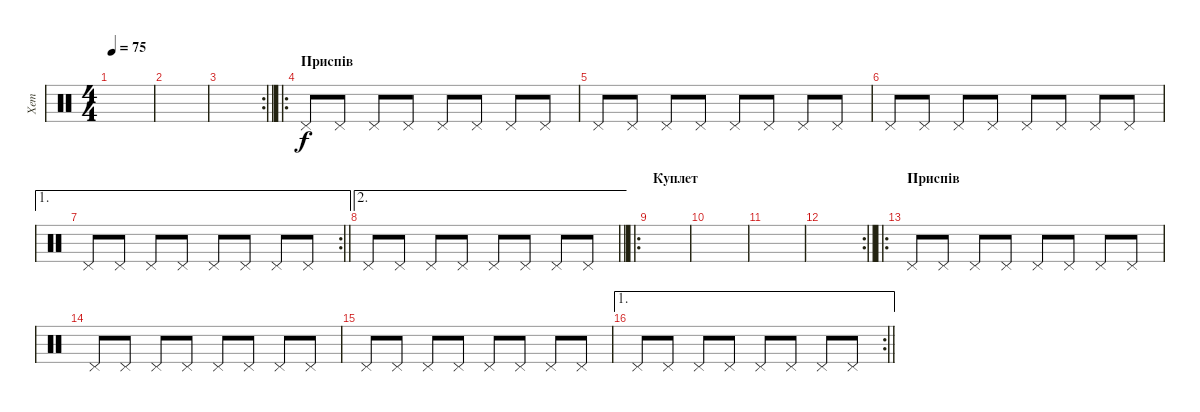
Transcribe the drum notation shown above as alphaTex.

\track ("Хет" "Хет") {instrument percussion}
\staff {score}
\articulation defaults
\ts (4 4)
\tempo 75
\clef neutral
\ks c
|
|
\rc 2
\barLineRight lightlight
|
\ro
\section ("" "Приспів")
"Pedal Hi-Hat (hit)".8 "Pedal Hi-Hat (hit)".8 "Pedal Hi-Hat (hit)".8 "Pedal Hi-Hat (hit)".8 "Pedal Hi-Hat (hit)".8 "Pedal Hi-Hat (hit)".8 "Pedal Hi-Hat (hit)".8 "Pedal Hi-Hat (hit)".8 |
"Pedal Hi-Hat (hit)".8 "Pedal Hi-Hat (hit)".8 "Pedal Hi-Hat (hit)".8 "Pedal Hi-Hat (hit)".8 "Pedal Hi-Hat (hit)".8 "Pedal Hi-Hat (hit)".8 "Pedal Hi-Hat (hit)".8 "Pedal Hi-Hat (hit)".8 |
"Pedal Hi-Hat (hit)".8 "Pedal Hi-Hat (hit)".8 "Pedal Hi-Hat (hit)".8 "Pedal Hi-Hat (hit)".8 "Pedal Hi-Hat (hit)".8 "Pedal Hi-Hat (hit)".8 "Pedal Hi-Hat (hit)".8 "Pedal Hi-Hat (hit)".8 |
\ae 1
\rc 2
\barLineRight lightlight "Pedal Hi-Hat (hit)".8 "Pedal Hi-Hat (hit)".8 "Pedal Hi-Hat (hit)".8 "Pedal Hi-Hat (hit)".8 "Pedal Hi-Hat (hit)".8 "Pedal Hi-Hat (hit)".8 "Pedal Hi-Hat (hit)".8 "Pedal Hi-Hat (hit)".8
|
\ae 2
\barLineRight lightlight "Pedal Hi-Hat (hit)".8 "Pedal Hi-Hat (hit)".8 "Pedal Hi-Hat (hit)".8 "Pedal Hi-Hat (hit)".8 "Pedal Hi-Hat (hit)".8 "Pedal Hi-Hat (hit)".8 "Pedal Hi-Hat (hit)".8 "Pedal Hi-Hat (hit)".8
|
\ro
\section ("" "Куплет")
|
|
|
\rc 2
\barLineRight lightlight
|
\ro
\section ("" "Приспів")
"Pedal Hi-Hat (hit)".8 "Pedal Hi-Hat (hit)".8 "Pedal Hi-Hat (hit)".8 "Pedal Hi-Hat (hit)".8 "Pedal Hi-Hat (hit)".8 "Pedal Hi-Hat (hit)".8 "Pedal Hi-Hat (hit)".8 "Pedal Hi-Hat (hit)".8 |
"Pedal Hi-Hat (hit)".8 "Pedal Hi-Hat (hit)".8 "Pedal Hi-Hat (hit)".8 "Pedal Hi-Hat (hit)".8 "Pedal Hi-Hat (hit)".8 "Pedal Hi-Hat (hit)".8 "Pedal Hi-Hat (hit)".8 "Pedal Hi-Hat (hit)".8 |
"Pedal Hi-Hat (hit)".8 "Pedal Hi-Hat (hit)".8 "Pedal Hi-Hat (hit)".8 "Pedal Hi-Hat (hit)".8 "Pedal Hi-Hat (hit)".8 "Pedal Hi-Hat (hit)".8 "Pedal Hi-Hat (hit)".8 "Pedal Hi-Hat (hit)".8 |
\ae 1
\rc 2
\barLineRight lightlight "Pedal Hi-Hat (hit)".8 "Pedal Hi-Hat (hit)".8 "Pedal Hi-Hat (hit)".8 "Pedal Hi-Hat (hit)".8 "Pedal Hi-Hat (hit)".8 "Pedal Hi-Hat (hit)".8 "Pedal Hi-Hat (hit)".8 "Pedal Hi-Hat (hit)".8
